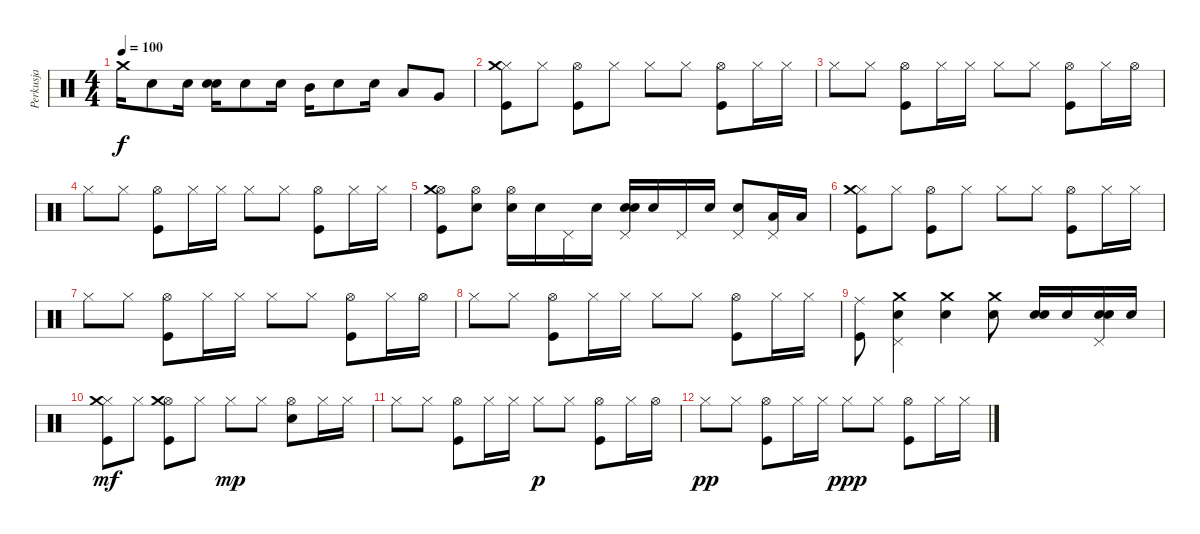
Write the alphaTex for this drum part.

\track ("Perkusja" "Perkusja") {instrument percussion}
\staff {score}
\articulation defaults
\ts (4 4)
\tempo 100
\clef neutral
\ks c "Crash medium (hit)".16{dy f} "Electric Snare (hit)".8 "Electric Snare (hit)".16
("Snare (hit) 2" "Electric Snare (hit)").16 "Electric Snare (hit)".8 "Electric Snare (hit)".16 "Mid Tom (hit)".16 "Electric Snare (hit)".8 "Electric Snare (hit)".16 "Low Tom (hit)".8 "Very Low Tom (hit)".8 |
("Kick (hit)" "Hi-Hat (closed)" "Crash medium (hit)").8 "Hi-Hat (closed)".8 ("Kick (hit)" "Hi-Hat (open)").8 "Hi-Hat (closed)".8 "Hi-Hat (closed)".8 "Hi-Hat (closed)".8 ("Kick (hit)" "Hi-Hat (open)").8 "Hi-Hat (closed)".16 "Hi-Hat (closed)".16 |
"Hi-Hat (closed)".8 "Hi-Hat (closed)".8 ("Kick (hit)" "Hi-Hat (open)").8 "Hi-Hat (closed)".16 "Hi-Hat (closed)".16 "Hi-Hat (closed)".8 "Hi-Hat (closed)".8 ("Kick (hit)" "Hi-Hat (open)").8 "Hi-Hat (closed)".16 "Hi-Hat (open)".16 |
"Hi-Hat (closed)".8 "Hi-Hat (closed)".8 ("Kick (hit)" "Hi-Hat (open)").8 "Hi-Hat (closed)".16 "Hi-Hat (closed)".16 "Hi-Hat (closed)".8 "Hi-Hat (closed)".8 ("Kick (hit)" "Hi-Hat (open)").8 "Hi-Hat (closed)".16 "Hi-Hat (closed)".16 |
("Kick (hit)" "Hi-Hat (open)" "Crash medium (hit)").8 ("Electric Snare (hit)" "Hi-Hat (open)").8 ("Snare (hit) 2" "Hi-Hat (open)").16 "Electric Snare (hit)".16 "Pedal Hi-Hat (hit)".16 "Electric Snare (hit)".16 ("Snare (hit) 2" "Electric Snare (hit)" "Pedal Hi-Hat (hit)").16 "Electric Snare (hit)".16 "Pedal Hi-Hat (hit)".16 "Electric Snare (hit)".16 ("Electric Snare (hit)" "Pedal Hi-Hat (hit)").8 ("Pedal Hi-Hat (hit)" "Low Tom (hit)").16 "Low Tom (hit)".16 |
("Kick (hit)" "Hi-Hat (closed)" "Crash medium (hit)").8 "Hi-Hat (closed)".8 ("Kick (hit)" "Hi-Hat (open)").8 "Hi-Hat (closed)".8 "Hi-Hat (closed)".8 "Hi-Hat (closed)".8 ("Kick (hit)" "Hi-Hat (open)").8 "Hi-Hat (closed)".16 "Hi-Hat (closed)".16 |
"Hi-Hat (closed)".8 "Hi-Hat (closed)".8 ("Kick (hit)" "Hi-Hat (open)").8 "Hi-Hat (closed)".16 "Hi-Hat (closed)".16 "Hi-Hat (closed)".8 "Hi-Hat (closed)".8 ("Kick (hit)" "Hi-Hat (open)").8 "Hi-Hat (closed)".16 "Hi-Hat (open)".16 |
"Hi-Hat (closed)".8 "Hi-Hat (closed)".8 ("Kick (hit)" "Hi-Hat (open)").8 "Hi-Hat (closed)".16 "Hi-Hat (closed)".16 "Hi-Hat (closed)".8 "Hi-Hat (closed)".8 ("Kick (hit)" "Hi-Hat (open)").8 "Hi-Hat (closed)".16 "Hi-Hat (closed)".16 |
("Kick (hit)" "Ride (middle)").8 ("Electric Snare (hit)" "Pedal Hi-Hat (hit)" "Crash medium (hit)").4 ("Electric Snare (hit)" "Crash medium (hit)").4 ("Electric Snare (hit)" "Crash medium (hit)").8 ("Snare (hit) 2" "Electric Snare (hit)").16 "Electric Snare (hit)".16 ("Snare (hit) 2" "Electric Snare (hit)" "Pedal Hi-Hat (hit)").16 "Electric Snare (hit)".16 |
("Kick (hit)" "Hi-Hat (closed)" "Crash medium (hit)").8{dy mf} "Hi-Hat (closed)".8 ("Kick (hit)" "Hi-Hat (open)" "Crash medium (hit)").8 "Hi-Hat (closed)".8 "Hi-Hat (closed)".8{dy mp} "Hi-Hat (closed)".8 ("Electric Snare (hit)" "Hi-Hat (open)").8 "Hi-Hat (closed)".16 "Hi-Hat (closed)".16 |
"Hi-Hat (closed)".8 "Hi-Hat (closed)".8 ("Kick (hit)" "Hi-Hat (open)").8 "Hi-Hat (closed)".16 "Hi-Hat (closed)".16 "Hi-Hat (closed)".8{dy p} "Hi-Hat (closed)".8 ("Kick (hit)" "Hi-Hat (open)").8 "Hi-Hat (closed)".16 "Hi-Hat (open)".16 |
"Hi-Hat (closed)".8{dy pp} "Hi-Hat (closed)".8 ("Kick (hit)" "Hi-Hat (open)").8 "Hi-Hat (closed)".16 "Hi-Hat (closed)".16 "Hi-Hat (closed)".8{dy ppp} "Hi-Hat (closed)".8 ("Kick (hit)" "Hi-Hat (open)").8 "Hi-Hat (closed)".16 "Hi-Hat (closed)".16
